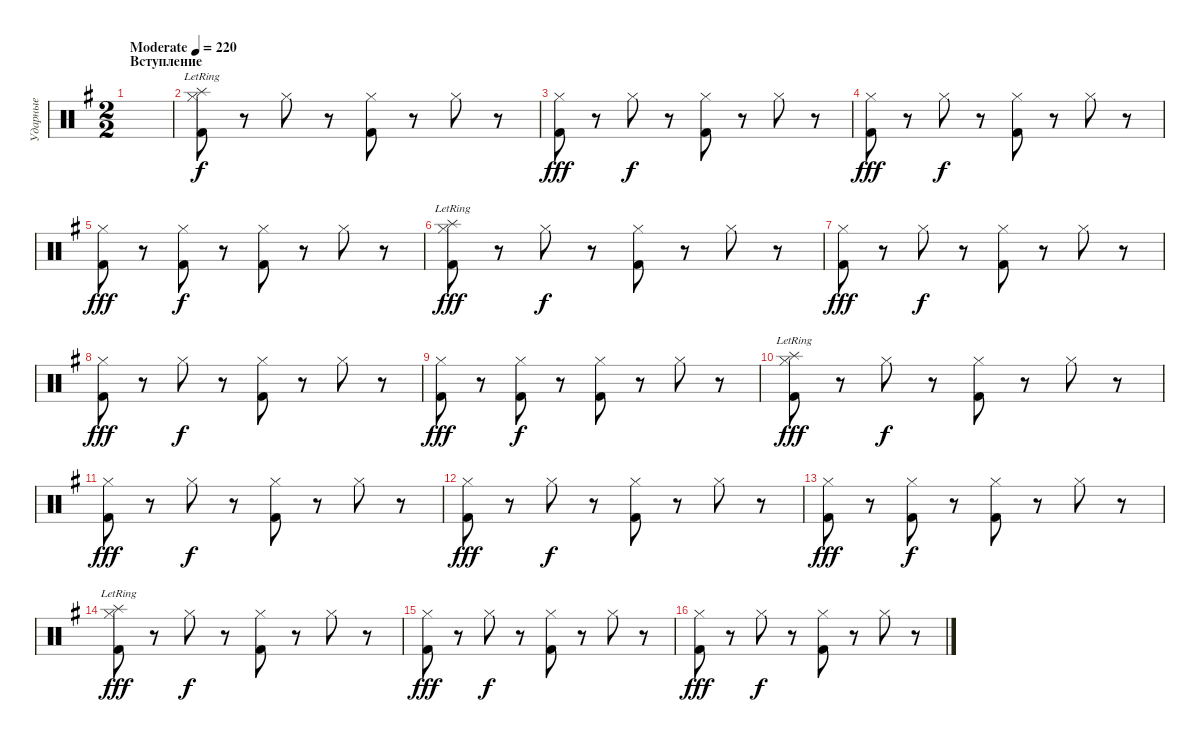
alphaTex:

\track ("Ударные" "Ударные") {instrument percussion}
\staff {score}
\articulation defaults
\ts (2 2)
\section ("" "Вступление")
\tempo (220 "Moderate")
\clef neutral
\ks eminor
|
("Hi-Hat (closed)" "Splash (hit)"{lr} "Kick (hit) 2").8 r.8 "Hi-Hat (closed)".8{dy f} r.8 ("Hi-Hat (closed)" "Kick (hit) 2").8 r.8 "Hi-Hat (closed)".8 r.8 |
("Hi-Hat (closed)" "Kick (hit) 2").8{dy fff} r.8 "Hi-Hat (closed)".8{dy f} r.8 ("Hi-Hat (closed)" "Kick (hit) 2").8 r.8 "Hi-Hat (closed)".8 r.8 |
("Hi-Hat (closed)" "Kick (hit) 2").8{dy fff} r.8 "Hi-Hat (closed)".8{dy f} r.8 ("Hi-Hat (closed)" "Kick (hit) 2").8 r.8 "Hi-Hat (closed)".8 r.8 |
("Hi-Hat (closed)" "Kick (hit) 2").8{dy fff} r.8 ("Hi-Hat (closed)" "Kick (hit) 2").8{dy f} r.8 ("Hi-Hat (closed)" "Kick (hit) 2").8 r.8 "Hi-Hat (closed)".8 r.8 |
("Hi-Hat (closed)" "Splash (hit)"{lr} "Kick (hit) 2").8{dy fff} r.8 "Hi-Hat (closed)".8{dy f} r.8 ("Hi-Hat (closed)" "Kick (hit) 2").8 r.8 "Hi-Hat (closed)".8 r.8 |
("Hi-Hat (closed)" "Kick (hit) 2").8{dy fff} r.8 "Hi-Hat (closed)".8{dy f} r.8 ("Hi-Hat (closed)" "Kick (hit) 2").8 r.8 "Hi-Hat (closed)".8 r.8 |
("Hi-Hat (closed)" "Kick (hit) 2").8{dy fff} r.8 "Hi-Hat (closed)".8{dy f} r.8 ("Hi-Hat (closed)" "Kick (hit) 2").8 r.8 "Hi-Hat (closed)".8 r.8 |
("Hi-Hat (closed)" "Kick (hit) 2").8{dy fff} r.8 ("Hi-Hat (closed)" "Kick (hit) 2").8{dy f} r.8 ("Hi-Hat (closed)" "Kick (hit) 2").8 r.8 "Hi-Hat (closed)".8 r.8 |
("Hi-Hat (closed)" "Splash (hit)"{lr} "Kick (hit) 2").8{dy fff} r.8 "Hi-Hat (closed)".8{dy f} r.8 ("Hi-Hat (closed)" "Kick (hit) 2").8 r.8 "Hi-Hat (closed)".8 r.8 |
("Hi-Hat (closed)" "Kick (hit) 2").8{dy fff} r.8 "Hi-Hat (closed)".8{dy f} r.8 ("Hi-Hat (closed)" "Kick (hit) 2").8 r.8 "Hi-Hat (closed)".8 r.8 |
("Hi-Hat (closed)" "Kick (hit) 2").8{dy fff} r.8 "Hi-Hat (closed)".8{dy f} r.8 ("Hi-Hat (closed)" "Kick (hit) 2").8 r.8 "Hi-Hat (closed)".8 r.8 |
("Hi-Hat (closed)" "Kick (hit) 2").8{dy fff} r.8 ("Hi-Hat (closed)" "Kick (hit) 2").8{dy f} r.8 ("Hi-Hat (closed)" "Kick (hit) 2").8 r.8 "Hi-Hat (closed)".8 r.8 |
("Hi-Hat (closed)" "Splash (hit)"{lr} "Kick (hit) 2").8{dy fff} r.8 "Hi-Hat (closed)".8{dy f} r.8 ("Hi-Hat (closed)" "Kick (hit) 2").8 r.8 "Hi-Hat (closed)".8 r.8 |
("Hi-Hat (closed)" "Kick (hit) 2").8{dy fff} r.8 "Hi-Hat (closed)".8{dy f} r.8 ("Hi-Hat (closed)" "Kick (hit) 2").8 r.8 "Hi-Hat (closed)".8 r.8 |
("Hi-Hat (closed)" "Kick (hit) 2").8{dy fff} r.8 "Hi-Hat (closed)".8{dy f} r.8 ("Hi-Hat (closed)" "Kick (hit) 2").8 r.8 "Hi-Hat (closed)".8 r.8
